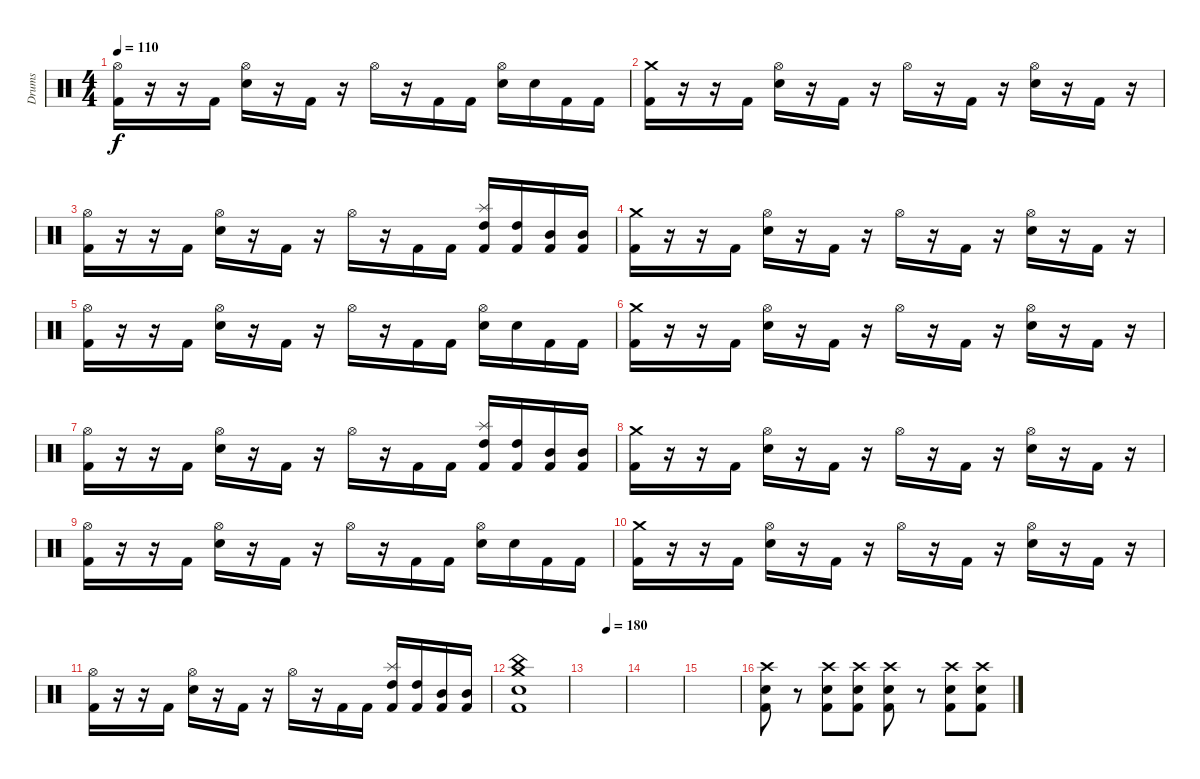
\track ("Drums" "Drums") {instrument percussion}
\staff
\articulation defaults
\ts (4 4)
\tempo 110
\clef neutral
\ks c
("Hi-Hat (open)" "Kick (hit) 2").16{dy f} r.16 r.16 "Kick (hit) 2".16 ("Hi-Hat (open)" "Electric Snare (hit)").16 r.16 "Kick (hit) 2".16 r.16 "Hi-Hat (open)".16 r.16 "Kick (hit) 2".16 "Kick (hit) 2".16 ("Hi-Hat (open)" "Electric Snare (hit)").16 "Electric Snare (hit)".16 "Kick (hit) 2".16 "Kick (hit) 2".16 |
("Crash medium (hit)" "Kick (hit) 2").16 r.16 r.16 "Kick (hit) 2".16 ("Hi-Hat (open)" "Electric Snare (hit)").16 r.16 "Kick (hit) 2".16 r.16 "Hi-Hat (open)".16 r.16 "Kick (hit) 2".16 r.16 ("Hi-Hat (open)" "Electric Snare (hit)").16 r.16 "Kick (hit) 2".16 r.16 |
("Hi-Hat (open)" "Kick (hit) 2").16 r.16 r.16 "Kick (hit) 2".16 ("Hi-Hat (open)" "Electric Snare (hit)").16 r.16 "Kick (hit) 2".16 r.16 "Hi-Hat (open)".16 r.16 "Kick (hit) 2".16 "Kick (hit) 2".16 ("Splash (hit)" "High Tom (hit)" "Kick (hit) 2").16 ("High Tom (hit)" "Kick (hit) 2").16 ("Mid Tom (hit)" "Kick (hit) 2").16 ("Mid Tom (hit)" "Kick (hit) 2").16 |
("Crash medium (hit)" "Kick (hit) 2").16 r.16 r.16 "Kick (hit) 2".16 ("Hi-Hat (open)" "Electric Snare (hit)").16 r.16 "Kick (hit) 2".16 r.16 "Hi-Hat (open)".16 r.16 "Kick (hit) 2".16 r.16 ("Hi-Hat (open)" "Electric Snare (hit)").16 r.16 "Kick (hit) 2".16 r.16 |
("Hi-Hat (open)" "Kick (hit) 2").16 r.16 r.16 "Kick (hit) 2".16 ("Hi-Hat (open)" "Electric Snare (hit)").16 r.16 "Kick (hit) 2".16 r.16 "Hi-Hat (open)".16 r.16 "Kick (hit) 2".16 "Kick (hit) 2".16 ("Hi-Hat (open)" "Electric Snare (hit)").16 "Electric Snare (hit)".16 "Kick (hit) 2".16 "Kick (hit) 2".16 |
("Crash medium (hit)" "Kick (hit) 2").16 r.16 r.16 "Kick (hit) 2".16 ("Hi-Hat (open)" "Electric Snare (hit)").16 r.16 "Kick (hit) 2".16 r.16 "Hi-Hat (open)".16 r.16 "Kick (hit) 2".16 r.16 ("Hi-Hat (open)" "Electric Snare (hit)").16 r.16 "Kick (hit) 2".16 r.16 |
("Hi-Hat (open)" "Kick (hit) 2").16 r.16 r.16 "Kick (hit) 2".16 ("Hi-Hat (open)" "Electric Snare (hit)").16 r.16 "Kick (hit) 2".16 r.16 "Hi-Hat (open)".16 r.16 "Kick (hit) 2".16 "Kick (hit) 2".16 ("Splash (hit)" "High Tom (hit)" "Kick (hit) 2").16 ("High Tom (hit)" "Kick (hit) 2").16 ("Mid Tom (hit)" "Kick (hit) 2").16 ("Mid Tom (hit)" "Kick (hit) 2").16 |
("Crash medium (hit)" "Kick (hit) 2").16 r.16 r.16 "Kick (hit) 2".16 ("Hi-Hat (open)" "Electric Snare (hit)").16 r.16 "Kick (hit) 2".16 r.16 "Hi-Hat (open)".16 r.16 "Kick (hit) 2".16 r.16 ("Hi-Hat (open)" "Electric Snare (hit)").16 r.16 "Kick (hit) 2".16 r.16 |
("Hi-Hat (open)" "Kick (hit) 2").16 r.16 r.16 "Kick (hit) 2".16 ("Hi-Hat (open)" "Electric Snare (hit)").16 r.16 "Kick (hit) 2".16 r.16 "Hi-Hat (open)".16 r.16 "Kick (hit) 2".16 "Kick (hit) 2".16 ("Hi-Hat (open)" "Electric Snare (hit)").16 "Electric Snare (hit)".16 "Kick (hit) 2".16 "Kick (hit) 2".16 |
("Crash medium (hit)" "Kick (hit) 2").16 r.16 r.16 "Kick (hit) 2".16 ("Hi-Hat (open)" "Electric Snare (hit)").16 r.16 "Kick (hit) 2".16 r.16 "Hi-Hat (open)".16 r.16 "Kick (hit) 2".16 r.16 ("Hi-Hat (open)" "Electric Snare (hit)").16 r.16 "Kick (hit) 2".16 r.16 |
("Hi-Hat (open)" "Kick (hit) 2").16 r.16 r.16 "Kick (hit) 2".16 ("Hi-Hat (open)" "Electric Snare (hit)").16 r.16 "Kick (hit) 2".16 r.16 "Hi-Hat (open)".16 r.16 "Kick (hit) 2".16 "Kick (hit) 2".16 ("Splash (hit)" "High Tom (hit)" "Kick (hit) 2").16 ("High Tom (hit)" "Kick (hit) 2").16 ("Mid Tom (hit)" "Kick (hit) 2").16 ("Mid Tom (hit)" "Kick (hit) 2").16 |
("Crash medium (hit)" "China (hit)" "Electric Snare (hit)" "Kick (hit) 2").1 |
\tempo (180 0.5)
|
|
|
("Kick (hit) 2" "Electric Snare (hit)" "Crash high (hit)").8 r.8 ("Kick (hit) 2" "Electric Snare (hit)" "Crash high (hit)").8 ("Kick (hit) 2" "Electric Snare (hit)" "Crash high (hit)").8 ("Kick (hit) 2" "Electric Snare (hit)" "Crash high (hit)").8 r.8 ("Kick (hit) 2" "Electric Snare (hit)" "Crash high (hit)").8 ("Kick (hit) 2" "Electric Snare (hit)" "Crash high (hit)").8
